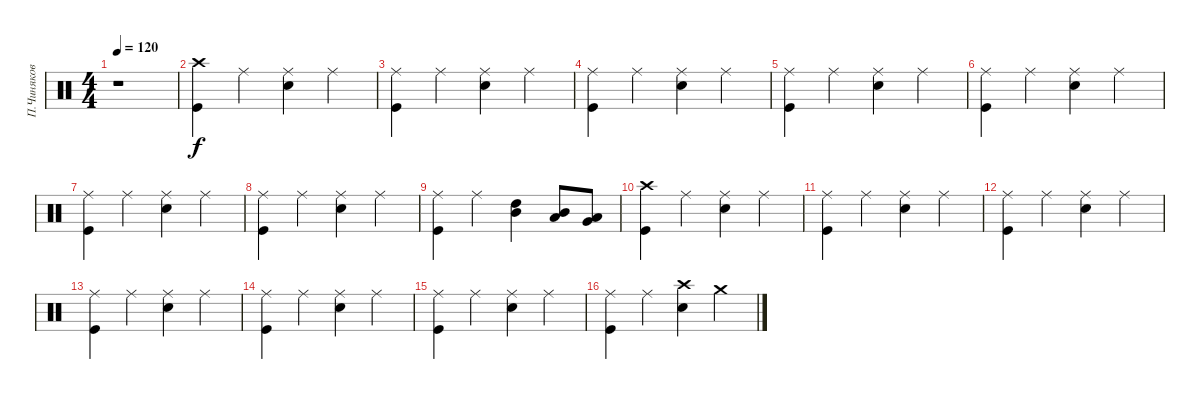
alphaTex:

\track ("П.Чиняков" "П.Чиняков") {instrument percussion}
\staff {score}
\articulation defaults
\ts (4 4)
\tempo 120
\clef neutral
\ks c
r.1{dy f} |
("Crash high (hit)" "Kick (hit)").4 "Ride (middle)".4 ("Ride (middle)" "Snare (hit) 2").4 "Ride (middle)".4 |
("Ride (middle)" "Kick (hit)").4 "Ride (middle)".4 ("Ride (middle)" "Snare (hit) 2").4 "Ride (middle)".4 |
("Ride (middle)" "Kick (hit)").4 "Ride (middle)".4 ("Ride (middle)" "Snare (hit) 2").4 "Ride (middle)".4 |
("Ride (middle)" "Kick (hit)").4 "Ride (middle)".4 ("Ride (middle)" "Snare (hit) 2").4 "Ride (middle)".4 |
("Ride (middle)" "Kick (hit)").4 "Ride (middle)".4 ("Ride (middle)" "Snare (hit) 2").4 "Ride (middle)".4 |
("Ride (middle)" "Kick (hit)").4 "Ride (middle)".4 ("Ride (middle)" "Snare (hit) 2").4 "Ride (middle)".4 |
("Ride (middle)" "Kick (hit)").4 "Ride (middle)".4 ("Ride (middle)" "Snare (hit) 2").4 "Ride (middle)".4 |
("Ride (middle)" "Kick (hit)").4 "Ride (middle)".4 ("High Tom (hit)" "Mid Tom (hit)").4 ("Mid Tom (hit)" "Low Tom (hit)").8 ("Low Tom (hit)" "Very Low Tom (hit)").8 |
("Crash high (hit)" "Kick (hit)").4 "Ride (middle)".4 ("Ride (middle)" "Snare (hit) 2").4 "Ride (middle)".4 |
("Ride (middle)" "Kick (hit)").4 "Ride (middle)".4 ("Ride (middle)" "Snare (hit) 2").4 "Ride (middle)".4 |
("Ride (middle)" "Kick (hit)").4 "Ride (middle)".4 ("Ride (middle)" "Snare (hit) 2").4 "Ride (middle)".4 |
("Ride (middle)" "Kick (hit)").4 "Ride (middle)".4 ("Ride (middle)" "Snare (hit) 2").4 "Ride (middle)".4 |
("Ride (middle)" "Kick (hit)").4 "Ride (middle)".4 ("Ride (middle)" "Snare (hit) 2").4 "Ride (middle)".4 |
("Ride (middle)" "Kick (hit)").4 "Ride (middle)".4 ("Ride (middle)" "Snare (hit) 2").4 "Ride (middle)".4 |
("Ride (middle)" "Kick (hit)").4 "Ride (middle)".4 ("Crash high (hit)" "Snare (hit) 2").4 "Crash medium (hit)".4
